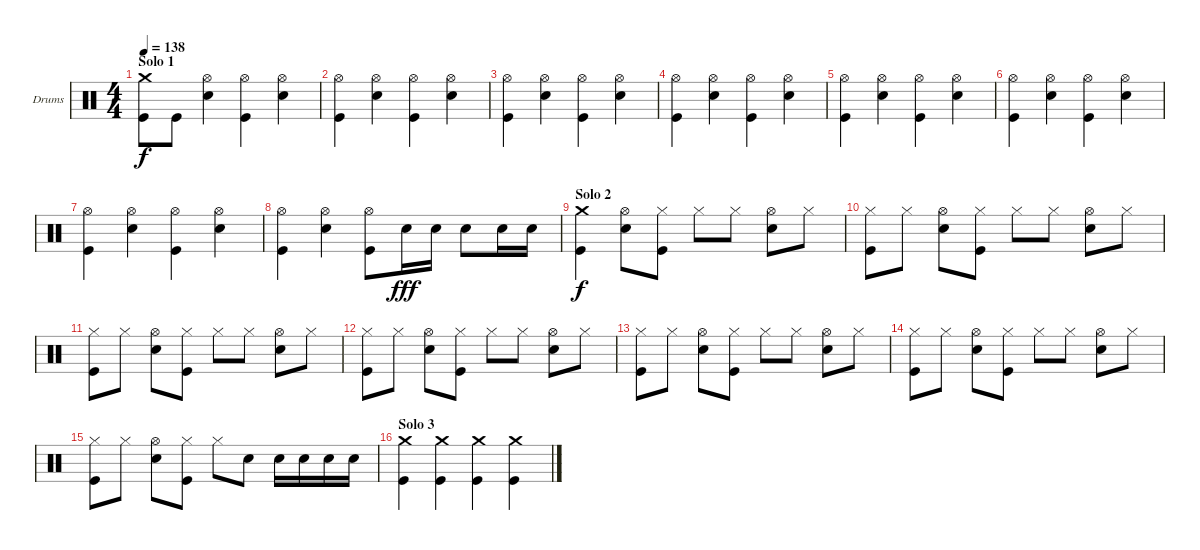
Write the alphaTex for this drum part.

\bracketExtendMode groupsimilarinstruments
\firstSystemTrackNameOrientation horizontal
\otherSystemsTrackNameOrientation horizontal
\track ("Drumkit" "Drums") {instrument percussion}
\staff {score}
\articulation defaults
\ts (4 4)
\section ("" "Solo 1")
\tempo 138
\clef neutral
\ks c
("Crash medium (hit)"{t} "Kick (hit)"{t}).8{dy f} "Kick (hit)".8 ("Hi-Hat (open)" "Snare (hit) 2").4 ("Hi-Hat (open)" "Kick (hit)").4 ("Hi-Hat (open)" "Snare (hit) 2").4 |
("Hi-Hat (open)" "Kick (hit)").4 ("Hi-Hat (open)" "Snare (hit) 2").4 ("Hi-Hat (open)" "Kick (hit)").4 ("Hi-Hat (open)" "Snare (hit) 2").4 |
("Hi-Hat (open)" "Kick (hit)").4 ("Hi-Hat (open)" "Snare (hit) 2").4 ("Hi-Hat (open)" "Kick (hit)").4 ("Hi-Hat (open)" "Snare (hit) 2").4 |
("Hi-Hat (open)" "Kick (hit)").4 ("Hi-Hat (open)" "Snare (hit) 2").4 ("Hi-Hat (open)" "Kick (hit)").4 ("Hi-Hat (open)" "Snare (hit) 2").4 |
("Hi-Hat (open)" "Kick (hit)").4 ("Hi-Hat (open)" "Snare (hit) 2").4 ("Hi-Hat (open)" "Kick (hit)").4 ("Hi-Hat (open)" "Snare (hit) 2").4 |
("Hi-Hat (open)" "Kick (hit)").4 ("Hi-Hat (open)" "Snare (hit) 2").4 ("Hi-Hat (open)" "Kick (hit)").4 ("Hi-Hat (open)" "Snare (hit) 2").4 |
("Hi-Hat (open)" "Kick (hit)").4 ("Hi-Hat (open)" "Snare (hit) 2").4 ("Hi-Hat (open)" "Kick (hit)").4 ("Hi-Hat (open)" "Snare (hit) 2").4 |
("Hi-Hat (open)" "Kick (hit)").4 ("Hi-Hat (open)" "Snare (hit) 2").4 ("Hi-Hat (open)" "Kick (hit)").8 "Snare (hit) 2".16{dy fff} "Snare (hit) 2".16 "Snare (hit) 2".8 "Snare (hit) 2".16 "Snare (hit) 2".16 |
\section ("" "Solo 2")
("Crash medium (hit)" "Kick (hit)").4{dy f} ("Hi-Hat (open)" "Snare (hit) 2").8 ("Hi-Hat (closed)" "Kick (hit)").8 "Hi-Hat (closed)".8 "Hi-Hat (closed)".8 ("Hi-Hat (open)" "Snare (hit) 2").8 "Hi-Hat (closed)".8 |
("Hi-Hat (closed)" "Kick (hit)").8 "Hi-Hat (closed)".8 ("Hi-Hat (open)" "Snare (hit) 2").8 ("Hi-Hat (closed)" "Kick (hit)").8 "Hi-Hat (closed)".8 "Hi-Hat (closed)".8 ("Hi-Hat (open)" "Snare (hit) 2").8 "Hi-Hat (closed)".8 |
("Hi-Hat (closed)" "Kick (hit)").8 "Hi-Hat (closed)".8 ("Hi-Hat (open)" "Snare (hit) 2").8 ("Hi-Hat (closed)" "Kick (hit)").8 "Hi-Hat (closed)".8 "Hi-Hat (closed)".8 ("Hi-Hat (open)" "Snare (hit) 2").8 "Hi-Hat (closed)".8 |
("Hi-Hat (closed)" "Kick (hit)").8 "Hi-Hat (closed)".8 ("Hi-Hat (open)" "Snare (hit) 2").8 ("Hi-Hat (closed)" "Kick (hit)").8 "Hi-Hat (closed)".8 "Hi-Hat (closed)".8 ("Hi-Hat (open)" "Snare (hit) 2").8 "Hi-Hat (closed)".8 |
("Hi-Hat (closed)" "Kick (hit)").8 "Hi-Hat (closed)".8 ("Hi-Hat (open)" "Snare (hit) 2").8 ("Hi-Hat (closed)" "Kick (hit)").8 "Hi-Hat (closed)".8 "Hi-Hat (closed)".8 ("Hi-Hat (open)" "Snare (hit) 2").8 "Hi-Hat (closed)".8 |
("Hi-Hat (closed)" "Kick (hit)").8 "Hi-Hat (closed)".8 ("Hi-Hat (open)" "Snare (hit) 2").8 ("Hi-Hat (closed)" "Kick (hit)").8 "Hi-Hat (closed)".8 "Hi-Hat (closed)".8 ("Hi-Hat (open)" "Snare (hit) 2").8 "Hi-Hat (closed)".8 |
("Hi-Hat (closed)" "Kick (hit)").8 "Hi-Hat (closed)".8 ("Hi-Hat (open)" "Snare (hit) 2").8 ("Hi-Hat (closed)" "Kick (hit)").8 "Hi-Hat (closed)".8 "Snare (hit) 2".8 "Snare (hit) 2".16 "Snare (hit) 2".16 "Snare (hit) 2".16 "Snare (hit) 2".16 |
\section ("" "Solo 3")
("Crash medium (hit)" "Kick (hit)").4 ("Crash medium (hit)" "Kick (hit)").4 ("Crash medium (hit)" "Kick (hit)").4 ("Crash medium (hit)" "Kick (hit)").4
